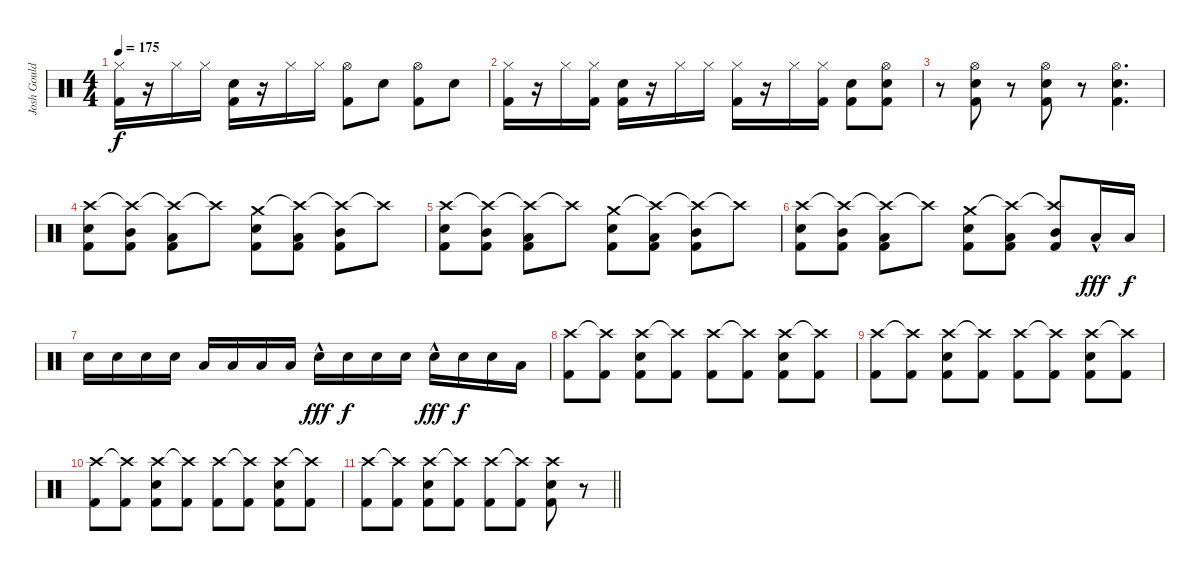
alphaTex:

\track ("Josh Gould - Drums" "Josh Gould") {instrument percussion}
\staff {score}
\articulation defaults
\ts (4 4)
\tempo 175
\clef neutral
\ks c
("Hi-Hat (closed)" "Kick (hit) 2").16{dy f} r.16 "Hi-Hat (closed)".16 "Hi-Hat (closed)".16 ("Snare (hit) 2" "Kick (hit) 2").16 r.16 "Hi-Hat (closed)".16 "Hi-Hat (closed)".16 ("Hi-Hat (open)" "Kick (hit) 2").8 "Snare (hit) 2".8 ("Hi-Hat (open)" "Kick (hit) 2").8 "Snare (hit) 2".8 |
("Hi-Hat (closed)" "Kick (hit) 2").16 r.16 "Hi-Hat (closed)".16 ("Hi-Hat (closed)" "Kick (hit) 2").16 ("Snare (hit) 2" "Kick (hit) 2").16 r.16 "Hi-Hat (closed)".16 "Hi-Hat (closed)".16 ("Hi-Hat (closed)" "Kick (hit) 2").16 r.16 "Hi-Hat (closed)".16 ("Hi-Hat (closed)" "Kick (hit) 2").16 ("Snare (hit) 2" "Kick (hit) 2").8 ("Hi-Hat (open)" "Snare (hit) 2" "Kick (hit) 2").8 |
r.8 ("Hi-Hat (open)" "Snare (hit) 2" "Kick (hit) 2").8 r.8 ("Hi-Hat (open)" "Snare (hit) 2" "Kick (hit) 2").8 r.8 ("Hi-Hat (open)" "Snare (hit) 2" "Kick (hit) 2").4{d} |
("Crash high (hit)" "Snare (hit) 2" "Kick (hit) 2").8 ("Crash high (hit)"{t} "Mid Tom (hit)" "Kick (hit) 2").8 ("Crash high (hit)"{t} "Low Tom (hit)" "Kick (hit) 2").8 "Crash high (hit)"{t}.8 ("Crash medium (hit)" "Snare (hit) 2" "Kick (hit) 2").8 ("Crash high (hit)"{t} "Low Tom (hit)" "Kick (hit) 2").8 ("Crash high (hit)"{t} "Mid Tom (hit)" "Kick (hit) 2").8 "Crash high (hit)"{t}.8 |
("Crash high (hit)" "Snare (hit) 2" "Kick (hit) 2").8 ("Crash high (hit)"{t} "Mid Tom (hit)" "Kick (hit) 2").8 ("Crash high (hit)"{t} "Low Tom (hit)" "Kick (hit) 2").8 "Crash high (hit)"{t}.8 ("Crash medium (hit)" "Snare (hit) 2" "Kick (hit) 2").8 ("Crash high (hit)"{t} "Low Tom (hit)" "Kick (hit) 2").8 ("Crash high (hit)"{t} "Mid Tom (hit)" "Kick (hit) 2").8 "Crash high (hit)"{t}.8 |
("Crash high (hit)" "Snare (hit) 2" "Kick (hit) 2").8 ("Crash high (hit)"{t} "Mid Tom (hit)" "Kick (hit) 2").8 ("Crash high (hit)"{t} "Low Tom (hit)" "Kick (hit) 2").8 "Crash high (hit)"{t}.8 ("Crash medium (hit)" "Snare (hit) 2" "Kick (hit) 2").8 ("Crash high (hit)"{t} "Low Tom (hit)" "Kick (hit) 2").8 ("Crash high (hit)"{t} "Mid Tom (hit)" "Kick (hit) 2").8 "Low Tom (hit)"{hac}.16{dy fff} "Low Tom (hit)".16{dy f} |
"Snare (hit) 2".16 "Snare (hit) 2".16 "Snare (hit) 2".16 "Snare (hit) 2".16 "Low Tom (hit)".16 "Low Tom (hit)".16 "Low Tom (hit)".16 "Low Tom (hit)".16 "Snare (hit) 2"{hac}.16{dy fff} "Snare (hit) 2".16{dy f} "Snare (hit) 2".16 "Snare (hit) 2".16 "Snare (hit) 2"{hac}.16{dy fff} "Snare (hit) 2".16{dy f} "Snare (hit) 2".16 "Low Tom (hit)".16 |
("Crash high (hit)" "Kick (hit) 2").8 ("Crash high (hit)"{t} "Kick (hit) 2").8 ("Crash high (hit)" "Snare (hit) 2" "Kick (hit) 2").8 ("Crash high (hit)"{t} "Kick (hit) 2").8 ("Crash high (hit)" "Kick (hit) 2").8 ("Crash high (hit)"{t} "Kick (hit) 2").8 ("Crash high (hit)" "Snare (hit) 2" "Kick (hit) 2").8 ("Crash high (hit)"{t} "Kick (hit) 2").8 |
("Crash high (hit)" "Kick (hit) 2").8 ("Crash high (hit)"{t} "Kick (hit) 2").8 ("Crash high (hit)" "Snare (hit) 2" "Kick (hit) 2").8 ("Crash high (hit)"{t} "Kick (hit) 2").8 ("Crash high (hit)" "Kick (hit) 2").8 ("Crash high (hit)"{t} "Kick (hit) 2").8 ("Crash high (hit)" "Snare (hit) 2" "Kick (hit) 2").8 ("Crash high (hit)"{t} "Kick (hit) 2").8 |
("Crash high (hit)" "Kick (hit) 2").8 ("Crash high (hit)"{t} "Kick (hit) 2").8 ("Crash high (hit)" "Snare (hit) 2" "Kick (hit) 2").8 ("Crash high (hit)"{t} "Kick (hit) 2").8 ("Crash high (hit)" "Kick (hit) 2").8 ("Crash high (hit)"{t} "Kick (hit) 2").8 ("Crash high (hit)" "Snare (hit) 2" "Kick (hit) 2").8 ("Crash high (hit)"{t} "Kick (hit) 2").8 |
\barLineRight lightlight
("Crash high (hit)" "Kick (hit) 2").8 ("Crash high (hit)"{t} "Kick (hit) 2").8 ("Crash high (hit)" "Snare (hit) 2" "Kick (hit) 2").8 ("Crash high (hit)"{t} "Kick (hit) 2").8 ("Crash high (hit)" "Kick (hit) 2").8 ("Crash high (hit)"{t} "Kick (hit) 2").8 ("Crash high (hit)" "Snare (hit) 2" "Kick (hit) 2").8 r.8{volume 0}
